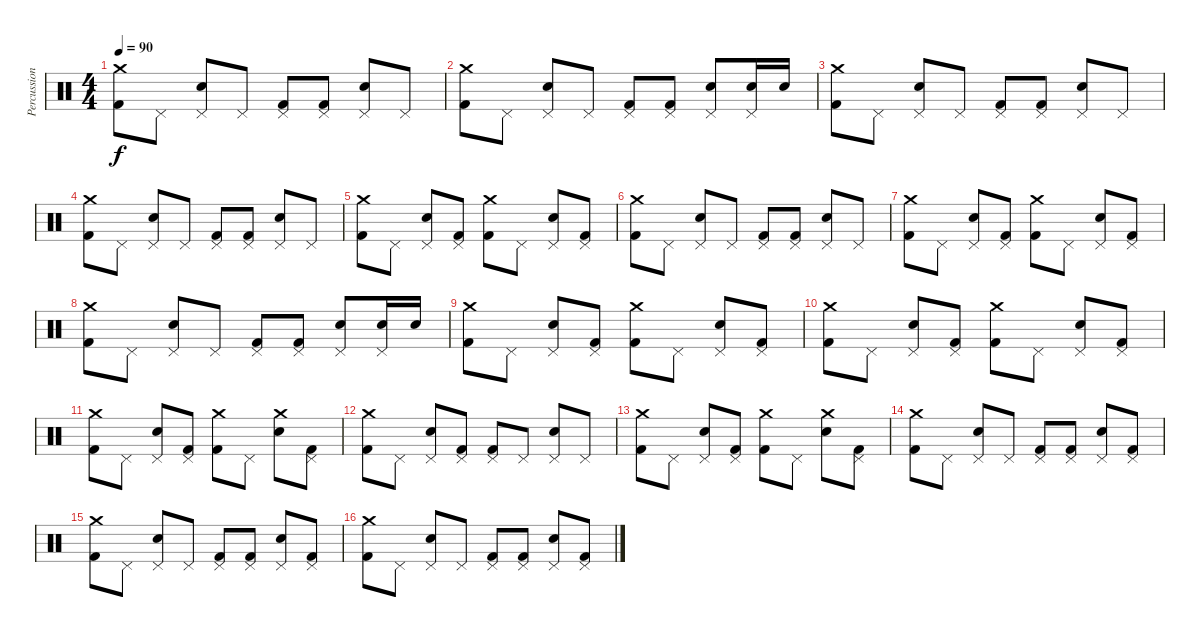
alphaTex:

\track ("Percussion" "Percussion") {instrument percussion}
\staff {score}
\articulation defaults
\ts (4 4)
\tempo 90
\clef neutral
\ks c
("Crash medium (hit)" "Kick (hit) 2").8{dy f} "Pedal Hi-Hat (hit)".8 ("Pedal Hi-Hat (hit)" "Snare (hit) 2").8 "Pedal Hi-Hat (hit)".8 ("Pedal Hi-Hat (hit)" "Kick (hit) 2").8 ("Pedal Hi-Hat (hit)" "Kick (hit) 2").8 ("Pedal Hi-Hat (hit)" "Snare (hit) 2").8 "Pedal Hi-Hat (hit)".8 |
("Crash medium (hit)" "Kick (hit) 2").8 "Pedal Hi-Hat (hit)".8 ("Pedal Hi-Hat (hit)" "Snare (hit) 2").8 "Pedal Hi-Hat (hit)".8 ("Pedal Hi-Hat (hit)" "Kick (hit) 2").8 ("Pedal Hi-Hat (hit)" "Kick (hit) 2").8 ("Pedal Hi-Hat (hit)" "Snare (hit) 2").8 ("Pedal Hi-Hat (hit)" "Snare (hit) 2").16 "Snare (hit) 2".16 |
("Crash medium (hit)" "Kick (hit) 2").8 "Pedal Hi-Hat (hit)".8 ("Pedal Hi-Hat (hit)" "Snare (hit) 2").8 "Pedal Hi-Hat (hit)".8 ("Pedal Hi-Hat (hit)" "Kick (hit) 2").8 ("Pedal Hi-Hat (hit)" "Kick (hit) 2").8 ("Pedal Hi-Hat (hit)" "Snare (hit) 2").8 "Pedal Hi-Hat (hit)".8 |
("Crash medium (hit)" "Kick (hit) 2").8 "Pedal Hi-Hat (hit)".8 ("Pedal Hi-Hat (hit)" "Snare (hit) 2").8 "Pedal Hi-Hat (hit)".8 ("Pedal Hi-Hat (hit)" "Kick (hit) 2").8 ("Pedal Hi-Hat (hit)" "Kick (hit) 2").8 ("Pedal Hi-Hat (hit)" "Snare (hit) 2").8 "Pedal Hi-Hat (hit)".8 |
("Crash medium (hit)" "Kick (hit) 2").8 "Pedal Hi-Hat (hit)".8 ("Pedal Hi-Hat (hit)" "Snare (hit) 2").8 ("Pedal Hi-Hat (hit)" "Kick (hit) 2").8 ("Crash medium (hit)" "Kick (hit) 2").8 "Pedal Hi-Hat (hit)".8 ("Pedal Hi-Hat (hit)" "Snare (hit) 2").8 ("Pedal Hi-Hat (hit)" "Kick (hit) 2").8 |
("Crash medium (hit)" "Kick (hit) 2").8 "Pedal Hi-Hat (hit)".8 ("Pedal Hi-Hat (hit)" "Snare (hit) 2").8 "Pedal Hi-Hat (hit)".8 ("Pedal Hi-Hat (hit)" "Kick (hit) 2").8 ("Pedal Hi-Hat (hit)" "Kick (hit) 2").8 ("Pedal Hi-Hat (hit)" "Snare (hit) 2").8 "Pedal Hi-Hat (hit)".8 |
("Crash medium (hit)" "Kick (hit) 2").8 "Pedal Hi-Hat (hit)".8 ("Pedal Hi-Hat (hit)" "Snare (hit) 2").8 ("Pedal Hi-Hat (hit)" "Kick (hit) 2").8 ("Crash medium (hit)" "Kick (hit) 2").8 "Pedal Hi-Hat (hit)".8 ("Pedal Hi-Hat (hit)" "Snare (hit) 2").8 ("Pedal Hi-Hat (hit)" "Kick (hit) 2").8 |
("Crash medium (hit)" "Kick (hit) 2").8 "Pedal Hi-Hat (hit)".8 ("Pedal Hi-Hat (hit)" "Snare (hit) 2").8 "Pedal Hi-Hat (hit)".8 ("Pedal Hi-Hat (hit)" "Kick (hit) 2").8 ("Pedal Hi-Hat (hit)" "Kick (hit) 2").8 ("Pedal Hi-Hat (hit)" "Snare (hit) 2").8 ("Pedal Hi-Hat (hit)" "Snare (hit) 2").16 "Snare (hit) 2".16 |
("Crash medium (hit)" "Kick (hit) 2").8 "Pedal Hi-Hat (hit)".8 ("Pedal Hi-Hat (hit)" "Snare (hit) 2").8 ("Pedal Hi-Hat (hit)" "Kick (hit) 2").8 ("Crash medium (hit)" "Kick (hit) 2").8 "Pedal Hi-Hat (hit)".8 ("Pedal Hi-Hat (hit)" "Snare (hit) 2").8 ("Pedal Hi-Hat (hit)" "Kick (hit) 2").8 |
("Crash medium (hit)" "Kick (hit) 2").8 "Pedal Hi-Hat (hit)".8 ("Pedal Hi-Hat (hit)" "Snare (hit) 2").8 ("Pedal Hi-Hat (hit)" "Kick (hit) 2").8 ("Crash medium (hit)" "Kick (hit) 2").8 "Pedal Hi-Hat (hit)".8 ("Pedal Hi-Hat (hit)" "Snare (hit) 2").8 ("Pedal Hi-Hat (hit)" "Kick (hit) 2").8 |
("Crash medium (hit)" "Kick (hit) 2").8 "Pedal Hi-Hat (hit)".8 ("Pedal Hi-Hat (hit)" "Snare (hit) 2").8 ("Pedal Hi-Hat (hit)" "Kick (hit) 2").8 ("Crash medium (hit)" "Kick (hit) 2").8 "Pedal Hi-Hat (hit)".8 ("Crash medium (hit)" "Snare (hit) 2").8 ("Pedal Hi-Hat (hit)" "Kick (hit) 2").8 |
("Crash medium (hit)" "Kick (hit) 2").8 "Pedal Hi-Hat (hit)".8 ("Pedal Hi-Hat (hit)" "Snare (hit) 2").8 ("Pedal Hi-Hat (hit)" "Kick (hit) 2").8 ("Pedal Hi-Hat (hit)" "Kick (hit) 2").8 "Pedal Hi-Hat (hit)".8 ("Pedal Hi-Hat (hit)" "Snare (hit) 2").8 "Pedal Hi-Hat (hit)".8 |
("Crash medium (hit)" "Kick (hit) 2").8 "Pedal Hi-Hat (hit)".8 ("Pedal Hi-Hat (hit)" "Snare (hit) 2").8 ("Pedal Hi-Hat (hit)" "Kick (hit) 2").8 ("Crash medium (hit)" "Kick (hit) 2").8 "Pedal Hi-Hat (hit)".8 ("Crash medium (hit)" "Snare (hit) 2").8 ("Pedal Hi-Hat (hit)" "Kick (hit) 2").8 |
("Crash medium (hit)" "Kick (hit) 2").8 "Pedal Hi-Hat (hit)".8 ("Pedal Hi-Hat (hit)" "Snare (hit) 2").8 "Pedal Hi-Hat (hit)".8 ("Pedal Hi-Hat (hit)" "Kick (hit) 2").8 ("Pedal Hi-Hat (hit)" "Kick (hit) 2").8 ("Pedal Hi-Hat (hit)" "Snare (hit) 2").8 ("Pedal Hi-Hat (hit)" "Kick (hit) 2").8 |
("Crash medium (hit)" "Kick (hit) 2").8 "Pedal Hi-Hat (hit)".8 ("Pedal Hi-Hat (hit)" "Snare (hit) 2").8 "Pedal Hi-Hat (hit)".8 ("Pedal Hi-Hat (hit)" "Kick (hit) 2").8 ("Pedal Hi-Hat (hit)" "Kick (hit) 2").8 ("Pedal Hi-Hat (hit)" "Snare (hit) 2").8 ("Pedal Hi-Hat (hit)" "Kick (hit) 2").8 |
("Crash medium (hit)" "Kick (hit) 2").8 "Pedal Hi-Hat (hit)".8 ("Pedal Hi-Hat (hit)" "Snare (hit) 2").8 "Pedal Hi-Hat (hit)".8 ("Pedal Hi-Hat (hit)" "Kick (hit) 2").8 ("Pedal Hi-Hat (hit)" "Kick (hit) 2").8 ("Pedal Hi-Hat (hit)" "Snare (hit) 2").8 ("Pedal Hi-Hat (hit)" "Kick (hit) 2").8
